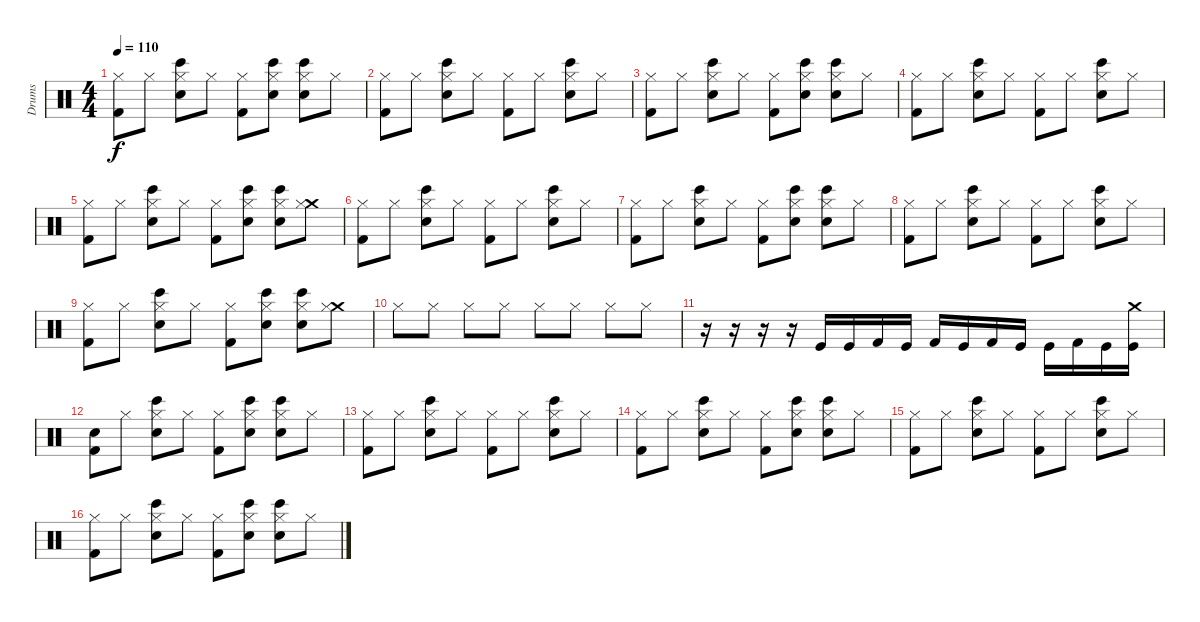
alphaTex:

\track ("Drums" "Drums") {instrument percussion}
\staff {score}
\articulation defaults
\ts (4 4)
\tempo 110
\clef neutral
\ks c
("Kick (hit) 2" "Hi-Hat (closed)").8{dy f} "Hi-Hat (closed)".8 ("Bongo High (hit)" "Snare (hit) 2" "Hi-Hat (closed)").8 "Hi-Hat (closed)".8 ("Kick (hit) 2" "Hi-Hat (closed)").8 ("Bongo High (hit)" "Snare (hit) 2" "Hi-Hat (closed)").8 ("Bongo High (hit)" "Snare (hit) 2" "Hi-Hat (closed)").8 "Hi-Hat (closed)".8 |
("Kick (hit) 2" "Hi-Hat (closed)").8 "Hi-Hat (closed)".8 ("Bongo High (hit)" "Snare (hit) 2" "Hi-Hat (closed)").8 "Hi-Hat (closed)".8 ("Kick (hit) 2" "Hi-Hat (closed)").8 "Hi-Hat (closed)".8 ("Bongo High (hit)" "Snare (hit) 2" "Hi-Hat (closed)").8 "Hi-Hat (closed)".8 |
("Kick (hit) 2" "Hi-Hat (closed)").8 "Hi-Hat (closed)".8 ("Bongo High (hit)" "Snare (hit) 2" "Hi-Hat (closed)").8 "Hi-Hat (closed)".8 ("Kick (hit) 2" "Hi-Hat (closed)").8 ("Bongo High (hit)" "Snare (hit) 2" "Hi-Hat (closed)").8 ("Bongo High (hit)" "Snare (hit) 2" "Hi-Hat (closed)").8 "Hi-Hat (closed)".8 |
("Kick (hit) 2" "Hi-Hat (closed)").8 "Hi-Hat (closed)".8 ("Bongo High (hit)" "Snare (hit) 2" "Hi-Hat (closed)").8 "Hi-Hat (closed)".8 ("Kick (hit) 2" "Hi-Hat (closed)").8 "Hi-Hat (closed)".8 ("Bongo High (hit)" "Snare (hit) 2" "Hi-Hat (closed)").8 "Hi-Hat (closed)".8 |
("Kick (hit) 2" "Hi-Hat (closed)").8 "Hi-Hat (closed)".8 ("Bongo High (hit)" "Snare (hit) 2" "Hi-Hat (closed)").8 "Hi-Hat (closed)".8 ("Kick (hit) 2" "Hi-Hat (closed)").8 ("Bongo High (hit)" "Snare (hit) 2" "Hi-Hat (closed)").8 ("Bongo High (hit)" "Snare (hit) 2" "Hi-Hat (closed)").8 ("Crash medium (hit)" "Hi-Hat (closed)").8 |
("Kick (hit) 2" "Hi-Hat (closed)").8 "Hi-Hat (closed)".8 ("Bongo High (hit)" "Snare (hit) 2" "Hi-Hat (closed)").8 "Hi-Hat (closed)".8 ("Kick (hit) 2" "Hi-Hat (closed)").8 "Hi-Hat (closed)".8 ("Bongo High (hit)" "Snare (hit) 2" "Hi-Hat (closed)").8 "Hi-Hat (closed)".8 |
("Kick (hit) 2" "Hi-Hat (closed)").8 "Hi-Hat (closed)".8 ("Bongo High (hit)" "Snare (hit) 2" "Hi-Hat (closed)").8 "Hi-Hat (closed)".8 ("Kick (hit) 2" "Hi-Hat (closed)").8 ("Bongo High (hit)" "Snare (hit) 2" "Hi-Hat (closed)").8 ("Bongo High (hit)" "Snare (hit) 2" "Hi-Hat (closed)").8 "Hi-Hat (closed)".8 |
("Kick (hit) 2" "Hi-Hat (closed)").8 "Hi-Hat (closed)".8 ("Bongo High (hit)" "Snare (hit) 2" "Hi-Hat (closed)").8 "Hi-Hat (closed)".8 ("Kick (hit) 2" "Hi-Hat (closed)").8 "Hi-Hat (closed)".8 ("Bongo High (hit)" "Snare (hit) 2" "Hi-Hat (closed)").8 "Hi-Hat (closed)".8 |
("Kick (hit) 2" "Hi-Hat (closed)").8 "Hi-Hat (closed)".8 ("Bongo High (hit)" "Snare (hit) 2" "Hi-Hat (closed)").8 "Hi-Hat (closed)".8 ("Kick (hit) 2" "Hi-Hat (closed)").8 ("Bongo High (hit)" "Snare (hit) 2" "Hi-Hat (closed)").8 ("Bongo High (hit)" "Snare (hit) 2" "Hi-Hat (closed)").8 ("Crash medium (hit)" "Hi-Hat (closed)").8 |
"Hi-Hat (closed)".8 "Hi-Hat (closed)".8 "Hi-Hat (closed)".8 "Hi-Hat (closed)".8 "Hi-Hat (closed)".8 "Hi-Hat (closed)".8 "Hi-Hat (closed)".8 "Hi-Hat (closed)".8 |
r.16 r.16 r.16 r.16 "Kick (hit)".16 "Kick (hit)".16 "Kick (hit) 2".16 "Kick (hit)".16 "Kick (hit) 2".16 "Kick (hit)".16 "Kick (hit) 2".16 "Kick (hit)".16 "Kick (hit)".16 "Kick (hit) 2".16 "Kick (hit)".16 ("Crash medium (hit)" "Kick (hit)").16 |
("Kick (hit) 2" "Snare (hit)").8 "Hi-Hat (closed)".8 ("Bongo High (hit)" "Snare (hit) 2" "Hi-Hat (closed)").8 "Hi-Hat (closed)".8 ("Kick (hit) 2" "Hi-Hat (closed)").8 ("Bongo High (hit)" "Snare (hit) 2" "Hi-Hat (closed)").8 ("Bongo High (hit)" "Snare (hit) 2" "Hi-Hat (closed)").8 "Hi-Hat (closed)".8 |
("Kick (hit) 2" "Hi-Hat (closed)").8 "Hi-Hat (closed)".8 ("Bongo High (hit)" "Snare (hit) 2" "Hi-Hat (closed)").8 "Hi-Hat (closed)".8 ("Kick (hit) 2" "Hi-Hat (closed)").8 "Hi-Hat (closed)".8 ("Bongo High (hit)" "Snare (hit) 2" "Hi-Hat (closed)").8 "Hi-Hat (closed)".8 |
("Kick (hit) 2" "Hi-Hat (closed)").8 "Hi-Hat (closed)".8 ("Bongo High (hit)" "Snare (hit) 2" "Hi-Hat (closed)").8 "Hi-Hat (closed)".8 ("Kick (hit) 2" "Hi-Hat (closed)").8 ("Bongo High (hit)" "Snare (hit) 2" "Hi-Hat (closed)").8 ("Bongo High (hit)" "Snare (hit) 2" "Hi-Hat (closed)").8 "Hi-Hat (closed)".8 |
("Kick (hit) 2" "Hi-Hat (closed)").8 "Hi-Hat (closed)".8 ("Bongo High (hit)" "Snare (hit) 2" "Hi-Hat (closed)").8 "Hi-Hat (closed)".8 ("Kick (hit) 2" "Hi-Hat (closed)").8 "Hi-Hat (closed)".8 ("Bongo High (hit)" "Snare (hit) 2" "Hi-Hat (closed)").8 "Hi-Hat (closed)".8 |
("Kick (hit) 2" "Hi-Hat (closed)").8 "Hi-Hat (closed)".8 ("Bongo High (hit)" "Snare (hit) 2" "Hi-Hat (closed)").8 "Hi-Hat (closed)".8 ("Kick (hit) 2" "Hi-Hat (closed)").8 ("Bongo High (hit)" "Snare (hit) 2" "Hi-Hat (closed)").8 ("Bongo High (hit)" "Snare (hit) 2" "Hi-Hat (closed)").8 "Hi-Hat (closed)".8
